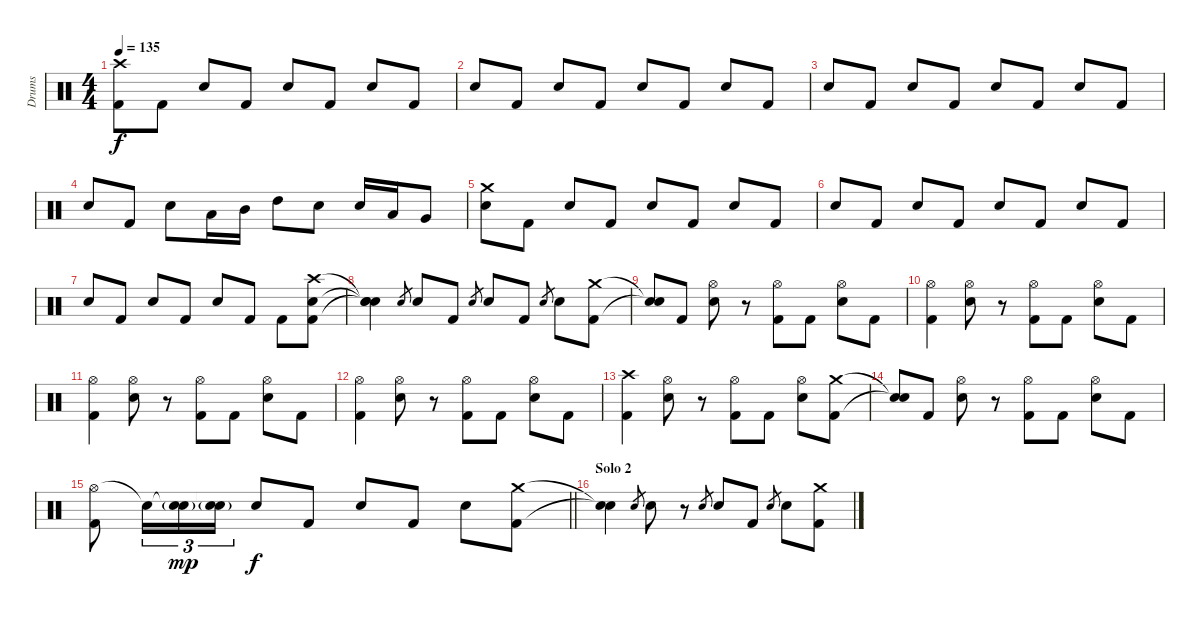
\track ("Drums" "Drums") {instrument percussion}
\staff {score}
\articulation defaults
\ts (4 4)
\tempo 135
\clef neutral
\ks c
("Crash high (hit)" "Kick (hit) 2").8{dy f} "Kick (hit) 2".8 "Electric Snare (hit)".8 "Kick (hit) 2".8 "Electric Snare (hit)".8 "Kick (hit) 2".8 "Electric Snare (hit)".8 "Kick (hit) 2".8 |
"Electric Snare (hit)".8 "Kick (hit) 2".8 "Electric Snare (hit)".8 "Kick (hit) 2".8 "Electric Snare (hit)".8 "Kick (hit) 2".8 "Electric Snare (hit)".8 "Kick (hit) 2".8 |
"Electric Snare (hit)".8 "Kick (hit) 2".8 "Electric Snare (hit)".8 "Kick (hit) 2".8 "Electric Snare (hit)".8 "Kick (hit) 2".8 "Electric Snare (hit)".8 "Kick (hit) 2".8 |
"Electric Snare (hit)".8 "Kick (hit) 2".8 "Electric Snare (hit)".8 "Low Tom (hit)".16 "Mid Tom (hit)".16 "High Tom (hit)".8 "Electric Snare (hit)".8 "Electric Snare (hit)".16 "Low Tom (hit)".16 "Very Low Tom (hit)".8 |
("Crash medium (hit)" "Electric Snare (hit)").8 "Kick (hit) 2".8 "Electric Snare (hit)".8 "Kick (hit) 2".8 "Electric Snare (hit)".8 "Kick (hit) 2".8 "Electric Snare (hit)".8 "Kick (hit) 2".8 |
"Electric Snare (hit)".8 "Kick (hit) 2".8 "Electric Snare (hit)".8 "Kick (hit) 2".8 "Electric Snare (hit)".8 "Kick (hit) 2".8 "Electric Snare (hit)".8 "Kick (hit) 2".8 |
"Electric Snare (hit)".8 "Kick (hit) 2".8 "Electric Snare (hit)".8 "Kick (hit) 2".8 "Electric Snare (hit)".8 "Kick (hit) 2".8 "Kick (hit) 2".8 ("Crash high (hit)" "Electric Snare (hit)" "Kick (hit) 2").8 |
("Snare (hit)"{t} "Snare (hit)"{t} "Snare (hit)"{t}).4 "Electric Snare (hit)".8{gr} "Electric Snare (hit)".8 "Kick (hit) 2".8 "Electric Snare (hit)".8{gr} "Electric Snare (hit)".8 "Kick (hit) 2".8 "Electric Snare (hit)".8{gr} "Electric Snare (hit)".8 ("Crash medium (hit)" "Kick (hit) 2").8 |
("Snare (hit)"{t} "Snare (hit)"{t}).8 "Kick (hit) 2".8 ("Hi-Hat (open)" "Electric Snare (hit)").8 r.8 ("Hi-Hat (open)" "Kick (hit) 2").8 "Kick (hit) 2".8 ("Hi-Hat (open)" "Electric Snare (hit)").8 "Kick (hit) 2".8 |
("Hi-Hat (open)" "Kick (hit) 2").4 ("Hi-Hat (open)" "Electric Snare (hit)").8 r.8 ("Hi-Hat (open)" "Kick (hit) 2").8 "Kick (hit) 2".8 ("Hi-Hat (open)" "Electric Snare (hit)").8 "Kick (hit) 2".8 |
("Hi-Hat (open)" "Kick (hit) 2").4 ("Hi-Hat (open)" "Electric Snare (hit)").8 r.8 ("Hi-Hat (open)" "Kick (hit) 2").8 "Kick (hit) 2".8 ("Hi-Hat (open)" "Electric Snare (hit)").8 "Kick (hit) 2".8 |
("Hi-Hat (open)" "Kick (hit) 2").4 ("Hi-Hat (open)" "Electric Snare (hit)").8 r.8 ("Hi-Hat (open)" "Kick (hit) 2").8 "Kick (hit) 2".8 ("Hi-Hat (open)" "Electric Snare (hit)").8 "Kick (hit) 2".8 |
("Crash high (hit)" "Kick (hit) 2").4 ("Hi-Hat (open)" "Electric Snare (hit)").8 r.8 ("Hi-Hat (open)" "Kick (hit) 2").8 "Kick (hit) 2".8 ("Hi-Hat (open)" "Electric Snare (hit)").8 ("Crash medium (hit)" "Kick (hit) 2").8 |
("Snare (hit)"{t} "Snare (hit)"{t}).8 "Kick (hit) 2".8 ("Hi-Hat (open)" "Electric Snare (hit)").8 r.8 ("Hi-Hat (open)" "Kick (hit) 2").8 "Kick (hit) 2".8 ("Hi-Hat (open)" "Electric Snare (hit)").8 "Kick (hit) 2".8 |
\barLineRight lightlight
("Hi-Hat (open)" "Kick (hit) 2").8 "Snare (hit)"{t}.16{tu (3 2)} ("Snare (hit)"{t} "Electric Snare (hit)"{g}).16{tu (3 2) dy mp} ("Snare (hit)"{t} "Electric Snare (hit)"{g}).16{tu (3 2)} "Electric Snare (hit)".8{dy f} "Kick (hit) 2".8 "Electric Snare (hit)".8 "Kick (hit) 2".8 "Electric Snare (hit)".8 ("Crash medium (hit)" "Kick (hit) 2").8 |
\section ("" "Solo 2")
("Snare (hit)"{t} "Snare (hit)"{t}).4 "Electric Snare (hit)".8{gr} "Electric Snare (hit)".8 r.8 "Electric Snare (hit)".8{gr} "Electric Snare (hit)".8 "Kick (hit) 2".8 "Electric Snare (hit)".8{gr} "Electric Snare (hit)".8 ("Crash medium (hit)" "Kick (hit) 2").8
